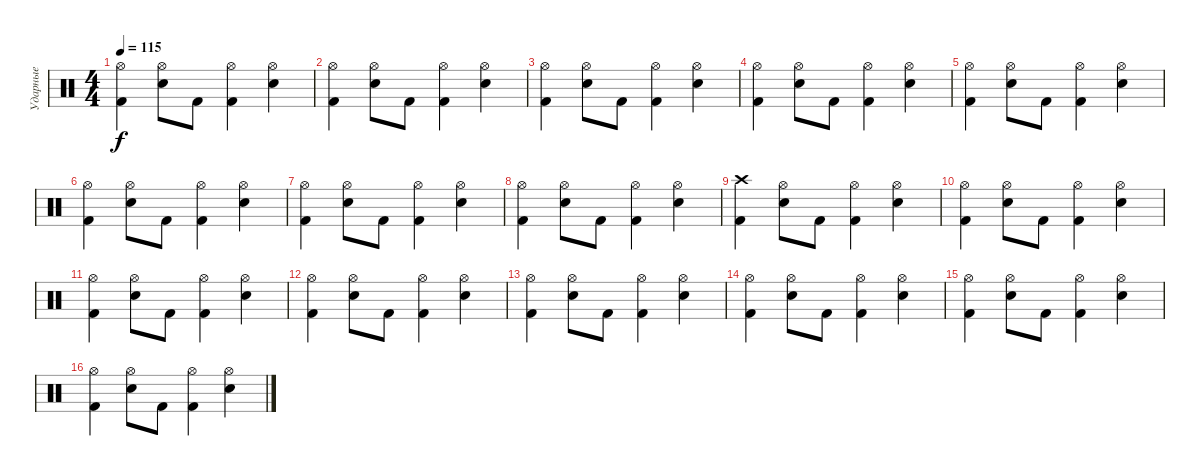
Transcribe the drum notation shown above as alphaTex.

\track ("Ударные" "Ударные") {instrument percussion}
\staff {score}
\articulation defaults
\ts (4 4)
\tempo 115
\clef neutral
\ks c
("Hi-Hat (open)" "Kick (hit) 2").4{dy f} ("Hi-Hat (open)" "Electric Snare (hit)").8 "Kick (hit) 2".8 ("Hi-Hat (open)" "Kick (hit) 2").4 ("Hi-Hat (open)" "Electric Snare (hit)").4 |
("Hi-Hat (open)" "Kick (hit) 2").4 ("Hi-Hat (open)" "Electric Snare (hit)").8 "Kick (hit) 2".8 ("Hi-Hat (open)" "Kick (hit) 2").4 ("Hi-Hat (open)" "Electric Snare (hit)").4 |
("Hi-Hat (open)" "Kick (hit) 2").4 ("Hi-Hat (open)" "Electric Snare (hit)").8 "Kick (hit) 2".8 ("Hi-Hat (open)" "Kick (hit) 2").4 ("Hi-Hat (open)" "Electric Snare (hit)").4 |
("Hi-Hat (open)" "Kick (hit) 2").4 ("Hi-Hat (open)" "Electric Snare (hit)").8 "Kick (hit) 2".8 ("Hi-Hat (open)" "Kick (hit) 2").4 ("Hi-Hat (open)" "Electric Snare (hit)").4 |
("Hi-Hat (open)" "Kick (hit) 2").4 ("Hi-Hat (open)" "Electric Snare (hit)").8 "Kick (hit) 2".8 ("Hi-Hat (open)" "Kick (hit) 2").4 ("Hi-Hat (open)" "Electric Snare (hit)").4 |
("Hi-Hat (open)" "Kick (hit) 2").4 ("Hi-Hat (open)" "Electric Snare (hit)").8 "Kick (hit) 2".8 ("Hi-Hat (open)" "Kick (hit) 2").4 ("Hi-Hat (open)" "Electric Snare (hit)").4 |
("Hi-Hat (open)" "Kick (hit) 2").4 ("Hi-Hat (open)" "Electric Snare (hit)").8 "Kick (hit) 2".8 ("Hi-Hat (open)" "Kick (hit) 2").4 ("Hi-Hat (open)" "Electric Snare (hit)").4 |
("Hi-Hat (open)" "Kick (hit) 2").4 ("Hi-Hat (open)" "Electric Snare (hit)").8 "Kick (hit) 2".8 ("Hi-Hat (open)" "Kick (hit) 2").4 ("Hi-Hat (open)" "Electric Snare (hit)").4 |
("Crash high (hit)" "Kick (hit) 2").4 ("Hi-Hat (open)" "Electric Snare (hit)").8 "Kick (hit) 2".8 ("Hi-Hat (open)" "Kick (hit) 2").4 ("Hi-Hat (open)" "Electric Snare (hit)").4 |
("Hi-Hat (open)" "Kick (hit) 2").4 ("Hi-Hat (open)" "Electric Snare (hit)").8 "Kick (hit) 2".8 ("Hi-Hat (open)" "Kick (hit) 2").4 ("Hi-Hat (open)" "Electric Snare (hit)").4 |
("Hi-Hat (open)" "Kick (hit) 2").4 ("Hi-Hat (open)" "Electric Snare (hit)").8 "Kick (hit) 2".8 ("Hi-Hat (open)" "Kick (hit) 2").4 ("Hi-Hat (open)" "Electric Snare (hit)").4 |
("Hi-Hat (open)" "Kick (hit) 2").4 ("Hi-Hat (open)" "Electric Snare (hit)").8 "Kick (hit) 2".8 ("Hi-Hat (open)" "Kick (hit) 2").4 ("Hi-Hat (open)" "Electric Snare (hit)").4 |
("Hi-Hat (open)" "Kick (hit) 2").4 ("Hi-Hat (open)" "Electric Snare (hit)").8 "Kick (hit) 2".8 ("Hi-Hat (open)" "Kick (hit) 2").4 ("Hi-Hat (open)" "Electric Snare (hit)").4 |
("Hi-Hat (open)" "Kick (hit) 2").4 ("Hi-Hat (open)" "Electric Snare (hit)").8 "Kick (hit) 2".8 ("Hi-Hat (open)" "Kick (hit) 2").4 ("Hi-Hat (open)" "Electric Snare (hit)").4 |
("Hi-Hat (open)" "Kick (hit) 2").4 ("Hi-Hat (open)" "Electric Snare (hit)").8 "Kick (hit) 2".8 ("Hi-Hat (open)" "Kick (hit) 2").4 ("Hi-Hat (open)" "Electric Snare (hit)").4 |
("Hi-Hat (open)" "Kick (hit) 2").4 ("Hi-Hat (open)" "Electric Snare (hit)").8 "Kick (hit) 2".8 ("Hi-Hat (open)" "Kick (hit) 2").4 ("Hi-Hat (open)" "Electric Snare (hit)").4
